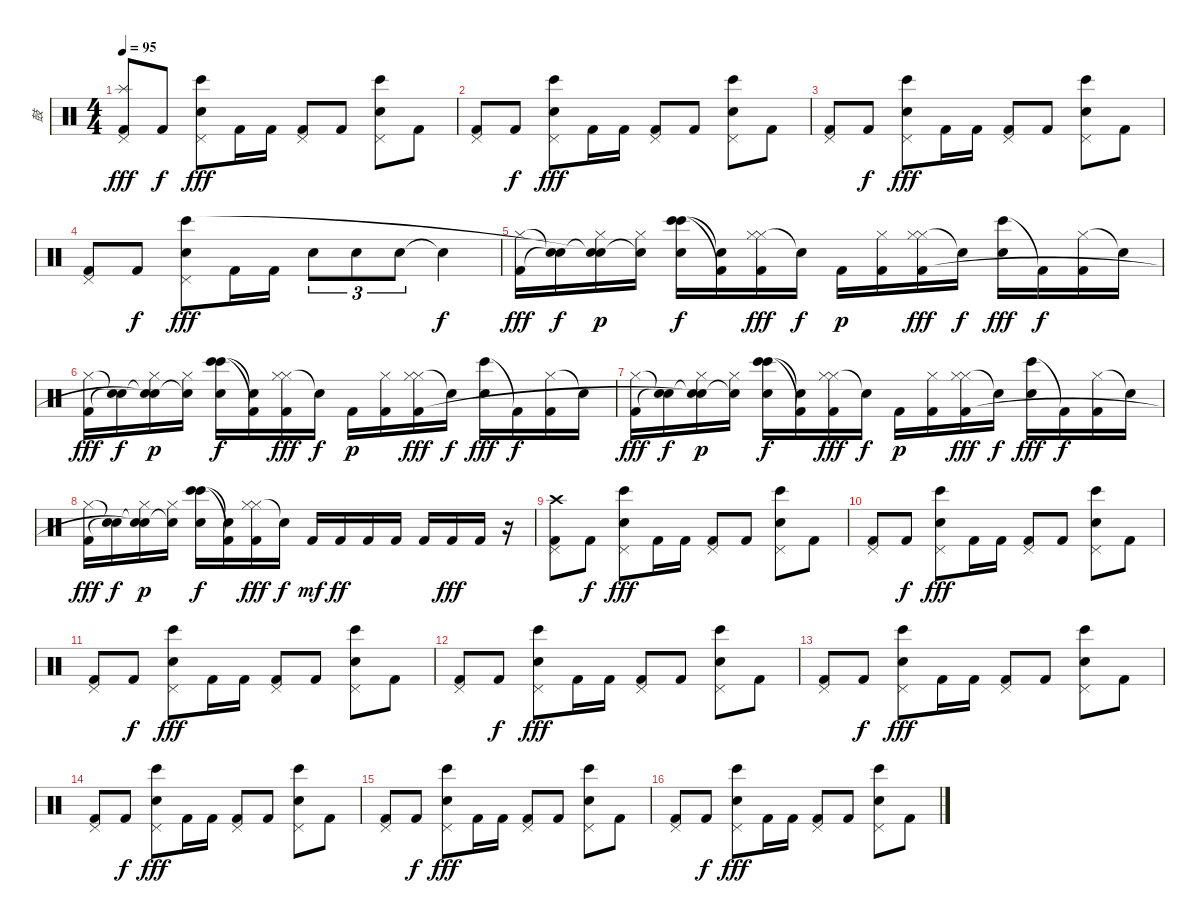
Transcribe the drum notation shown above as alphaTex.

\track ("鼓" "鼓") {instrument percussion}
\staff {score}
\articulation defaults
\ts (4 4)
\tempo 95
\clef neutral
\ks c
("Pedal Hi-Hat (hit)" "Splash (hit)" "Kick (hit) 2").8{dy fff} "Kick (hit) 2".8{dy f} ("Pedal Hi-Hat (hit)" "Electric Snare (hit)" "Bongo High (hit)").8{dy fff} "Kick (hit) 2".16 "Kick (hit) 2".16 ("Pedal Hi-Hat (hit)" "Kick (hit) 2").8 "Kick (hit) 2".8 ("Pedal Hi-Hat (hit)" "Electric Snare (hit)" "Bongo High (hit)").8 "Kick (hit) 2".8 |
("Pedal Hi-Hat (hit)" "Kick (hit) 2").8 "Kick (hit) 2".8{dy f} ("Pedal Hi-Hat (hit)" "Electric Snare (hit)" "Bongo High (hit)").8{dy fff} "Kick (hit) 2".16 "Kick (hit) 2".16 ("Pedal Hi-Hat (hit)" "Kick (hit) 2").8 "Kick (hit) 2".8 ("Pedal Hi-Hat (hit)" "Electric Snare (hit)" "Bongo High (hit)").8 "Kick (hit) 2".8 |
("Pedal Hi-Hat (hit)" "Kick (hit) 2").8 "Kick (hit) 2".8{dy f} ("Pedal Hi-Hat (hit)" "Electric Snare (hit)" "Bongo High (hit)").8{dy fff} "Kick (hit) 2".16 "Kick (hit) 2".16 ("Pedal Hi-Hat (hit)" "Kick (hit) 2").8 "Kick (hit) 2".8 ("Pedal Hi-Hat (hit)" "Electric Snare (hit)" "Bongo High (hit)").8 "Kick (hit) 2".8 |
("Pedal Hi-Hat (hit)" "Kick (hit) 2").8 "Kick (hit) 2".8{dy f} ("Pedal Hi-Hat (hit)" "Electric Snare (hit)" "Bongo High (hit)").8{dy fff} "Kick (hit) 2".16 "Kick (hit) 2".16 "Electric Snare (hit)".8{tu (3 2)} "Electric Snare (hit)".8{tu (3 2)} "Electric Snare (hit)".8{tu (3 2)} "Snare (hit)"{t}.4{dy f} |
("Hi-Hat (closed)" "Kick (hit) 2").16{dy fff} ("Snare (hit)"{t} "Snare (hit)"{t}).16{dy f} ("Hi-Hat (closed)" "Snare (hit)"{t} "Snare (hit)"{t}).16{dy p} ("Hi-Hat (closed)" "Snare (hit)"{t}).16 ("Bongo High (hit)" "Bongo High (hit)" "Snare (hit) 2").16{dy f} ("Kick (hit) 2"{t} "Snare (hit)"{t}).16 ("Hi-Hat (closed)" "Hi-Hat (closed)" "Kick (hit) 2").16{dy fff} "Snare (hit)"{t}.16{dy f} "Kick (hit) 2".16{dy p} ("Hi-Hat (closed)" "Kick (hit) 2").16 ("Hi-Hat (closed)" "Hi-Hat (closed)" "Kick (hit) 2").16{dy fff} "Snare (hit)"{t}.16{dy f} ("Bongo High (hit)" "Snare (hit) 2").16{dy fff} "Kick (hit) 2"{t}.16{dy f} ("Hi-Hat (closed)" "Kick (hit) 2").16 "Snare (hit)"{t}.16 |
("Hi-Hat (closed)" "Kick (hit) 2").16{dy fff} ("Snare (hit)"{t} "Snare (hit)"{t}).16{dy f} ("Hi-Hat (closed)" "Snare (hit)"{t} "Snare (hit)"{t}).16{dy p} ("Hi-Hat (closed)" "Snare (hit)"{t}).16 ("Bongo High (hit)" "Bongo High (hit)" "Snare (hit) 2").16{dy f} ("Kick (hit) 2"{t} "Snare (hit)"{t}).16 ("Hi-Hat (closed)" "Hi-Hat (closed)" "Kick (hit) 2").16{dy fff} "Snare (hit)"{t}.16{dy f} "Kick (hit) 2".16{dy p} ("Hi-Hat (closed)" "Kick (hit) 2").16 ("Hi-Hat (closed)" "Hi-Hat (closed)" "Kick (hit) 2").16{dy fff} "Snare (hit)"{t}.16{dy f} ("Bongo High (hit)" "Snare (hit) 2").16{dy fff} "Kick (hit) 2"{t}.16{dy f} ("Hi-Hat (closed)" "Kick (hit) 2").16 "Snare (hit)"{t}.16 |
("Hi-Hat (closed)" "Kick (hit) 2").16{dy fff} ("Snare (hit)"{t} "Snare (hit)"{t}).16{dy f} ("Hi-Hat (closed)" "Snare (hit)"{t} "Snare (hit)"{t}).16{dy p} ("Hi-Hat (closed)" "Snare (hit)"{t}).16 ("Bongo High (hit)" "Bongo High (hit)" "Snare (hit) 2").16{dy f} ("Kick (hit) 2"{t} "Snare (hit)"{t}).16 ("Hi-Hat (closed)" "Hi-Hat (closed)" "Kick (hit) 2").16{dy fff} "Snare (hit)"{t}.16{dy f} "Kick (hit) 2".16{dy p} ("Hi-Hat (closed)" "Kick (hit) 2").16 ("Hi-Hat (closed)" "Hi-Hat (closed)" "Kick (hit) 2").16{dy fff} "Snare (hit)"{t}.16{dy f} ("Bongo High (hit)" "Snare (hit) 2").16{dy fff} "Kick (hit) 2"{t}.16{dy f} ("Hi-Hat (closed)" "Kick (hit) 2").16 "Snare (hit)"{t}.16 |
("Hi-Hat (closed)" "Kick (hit) 2").16{dy fff} ("Snare (hit)"{t} "Snare (hit)"{t}).16{dy f} ("Hi-Hat (closed)" "Snare (hit)"{t} "Snare (hit)"{t}).16{dy p} ("Hi-Hat (closed)" "Snare (hit)"{t}).16 ("Bongo High (hit)" "Bongo High (hit)" "Snare (hit) 2").16{dy f} ("Kick (hit) 2"{t} "Snare (hit)"{t}).16 ("Hi-Hat (closed)" "Hi-Hat (closed)" "Kick (hit) 2").16{dy fff} "Snare (hit)"{t}.16{dy f} "Kick (hit) 2".16{dy mf} "Kick (hit) 2".16{dy ff} "Kick (hit) 2".16 "Kick (hit) 2".16 "Kick (hit) 2".16 "Kick (hit) 2".16{dy fff} "Kick (hit) 2".16 r.16 |
("Pedal Hi-Hat (hit)" "Kick (hit) 2" "Crash high (hit)").8 "Kick (hit) 2".8{dy f} ("Pedal Hi-Hat (hit)" "Electric Snare (hit)" "Bongo High (hit)").8{dy fff} "Kick (hit) 2".16 "Kick (hit) 2".16 ("Pedal Hi-Hat (hit)" "Kick (hit) 2").8 "Kick (hit) 2".8 ("Pedal Hi-Hat (hit)" "Electric Snare (hit)" "Bongo High (hit)").8 "Kick (hit) 2".8 |
("Pedal Hi-Hat (hit)" "Kick (hit) 2").8 "Kick (hit) 2".8{dy f} ("Pedal Hi-Hat (hit)" "Electric Snare (hit)" "Bongo High (hit)").8{dy fff} "Kick (hit) 2".16 "Kick (hit) 2".16 ("Pedal Hi-Hat (hit)" "Kick (hit) 2").8 "Kick (hit) 2".8 ("Pedal Hi-Hat (hit)" "Electric Snare (hit)" "Bongo High (hit)").8 "Kick (hit) 2".8 |
("Pedal Hi-Hat (hit)" "Kick (hit) 2").8 "Kick (hit) 2".8{dy f} ("Pedal Hi-Hat (hit)" "Electric Snare (hit)" "Bongo High (hit)").8{dy fff} "Kick (hit) 2".16 "Kick (hit) 2".16 ("Pedal Hi-Hat (hit)" "Kick (hit) 2").8 "Kick (hit) 2".8 ("Pedal Hi-Hat (hit)" "Electric Snare (hit)" "Bongo High (hit)").8 "Kick (hit) 2".8 |
("Pedal Hi-Hat (hit)" "Kick (hit) 2").8 "Kick (hit) 2".8{dy f} ("Pedal Hi-Hat (hit)" "Electric Snare (hit)" "Bongo High (hit)").8{dy fff} "Kick (hit) 2".16 "Kick (hit) 2".16 ("Pedal Hi-Hat (hit)" "Kick (hit) 2").8 "Kick (hit) 2".8 ("Pedal Hi-Hat (hit)" "Electric Snare (hit)" "Bongo High (hit)").8 "Kick (hit) 2".8 |
("Pedal Hi-Hat (hit)" "Kick (hit) 2").8 "Kick (hit) 2".8{dy f} ("Pedal Hi-Hat (hit)" "Electric Snare (hit)" "Bongo High (hit)").8{dy fff} "Kick (hit) 2".16 "Kick (hit) 2".16 ("Pedal Hi-Hat (hit)" "Kick (hit) 2").8 "Kick (hit) 2".8 ("Pedal Hi-Hat (hit)" "Electric Snare (hit)" "Bongo High (hit)").8 "Kick (hit) 2".8 |
("Pedal Hi-Hat (hit)" "Kick (hit) 2").8 "Kick (hit) 2".8{dy f} ("Pedal Hi-Hat (hit)" "Electric Snare (hit)" "Bongo High (hit)").8{dy fff} "Kick (hit) 2".16 "Kick (hit) 2".16 ("Pedal Hi-Hat (hit)" "Kick (hit) 2").8 "Kick (hit) 2".8 ("Pedal Hi-Hat (hit)" "Electric Snare (hit)" "Bongo High (hit)").8 "Kick (hit) 2".8 |
("Pedal Hi-Hat (hit)" "Kick (hit) 2").8 "Kick (hit) 2".8{dy f} ("Pedal Hi-Hat (hit)" "Electric Snare (hit)" "Bongo High (hit)").8{dy fff} "Kick (hit) 2".16 "Kick (hit) 2".16 ("Pedal Hi-Hat (hit)" "Kick (hit) 2").8 "Kick (hit) 2".8 ("Pedal Hi-Hat (hit)" "Electric Snare (hit)" "Bongo High (hit)").8 "Kick (hit) 2".8 |
("Pedal Hi-Hat (hit)" "Kick (hit) 2").8 "Kick (hit) 2".8{dy f} ("Pedal Hi-Hat (hit)" "Electric Snare (hit)" "Bongo High (hit)").8{dy fff} "Kick (hit) 2".16 "Kick (hit) 2".16 ("Pedal Hi-Hat (hit)" "Kick (hit) 2").8 "Kick (hit) 2".8 ("Pedal Hi-Hat (hit)" "Electric Snare (hit)" "Bongo High (hit)").8 "Kick (hit) 2".8
